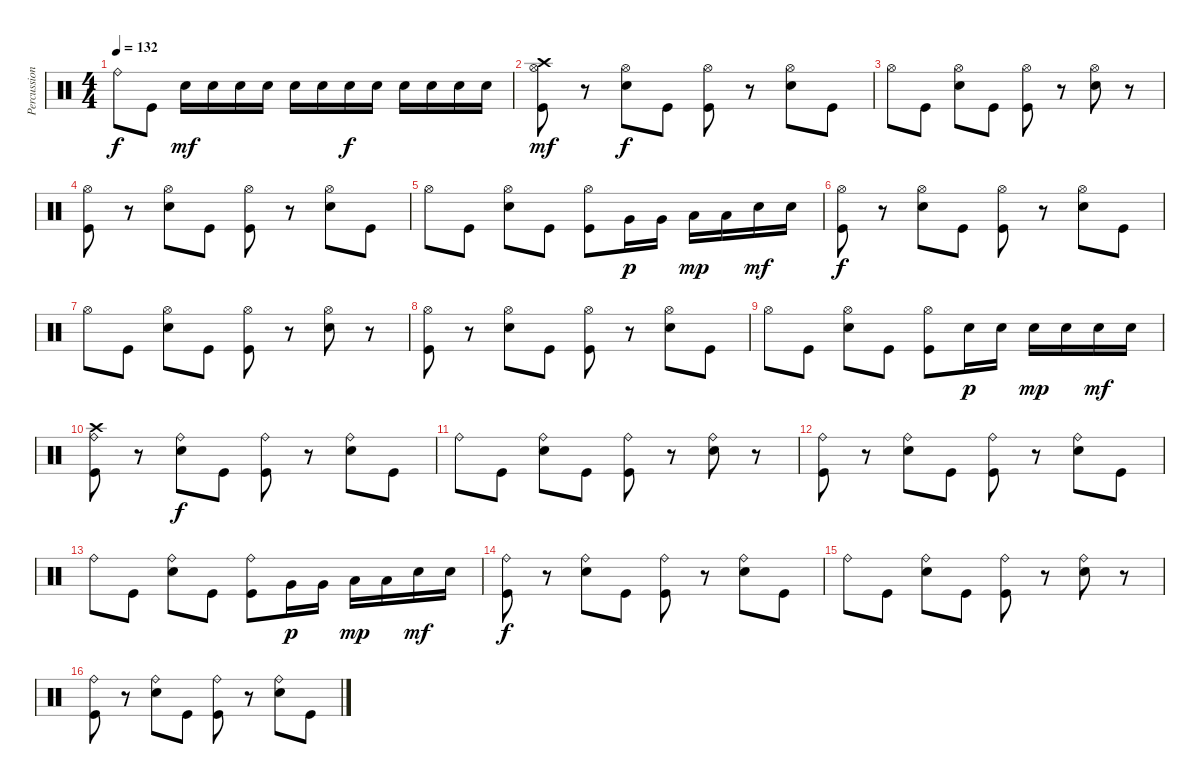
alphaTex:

\track ("Percussion" "Percussion") {instrument percussion}
\staff {score}
\articulation defaults
\ts (4 4)
\tempo 132
\clef neutral
\ks c "Ride (bell)".8{dy f} "Kick (hit)".8 "Snare (hit) 2".16{dy mf} "Snare (hit) 2".16 "Snare (hit) 2".16 "Snare (hit) 2".16 "Snare (hit) 2".16 "Snare (hit) 2".16 "Snare (hit) 2".16{dy f} "Snare (hit) 2".16 "Snare (hit) 2".16 "Snare (hit) 2".16 "Snare (hit) 2".16 "Snare (hit) 2".16
|
("Crash high (hit)" "Hi-Hat (open)" "Kick (hit)").8{dy mf} r.8 ("Hi-Hat (open)" "Snare (hit) 2").8{dy f} "Kick (hit)".8 ("Hi-Hat (open)" "Kick (hit)").8 r.8 ("Hi-Hat (open)" "Snare (hit) 2").8 "Kick (hit)".8 |
"Hi-Hat (open)".8 "Kick (hit)".8 ("Hi-Hat (open)" "Snare (hit) 2").8 "Kick (hit)".8 ("Hi-Hat (open)" "Kick (hit)").8 r.8 ("Hi-Hat (open)" "Snare (hit) 2").8 r.8 |
("Hi-Hat (open)" "Kick (hit)").8 r.8 ("Hi-Hat (open)" "Snare (hit) 2").8 "Kick (hit)".8 ("Hi-Hat (open)" "Kick (hit)").8 r.8 ("Hi-Hat (open)" "Snare (hit) 2").8 "Kick (hit)".8 |
"Hi-Hat (open)".8 "Kick (hit)".8 ("Hi-Hat (open)" "Snare (hit) 2").8 "Kick (hit)".8 ("Hi-Hat (open)" "Kick (hit)").8 "Very Low Tom (hit)".16{dy p} "Very Low Tom (hit)".16 "Low Floor Tom (hit)".16{dy mp} "Low Floor Tom (hit)".16 "Snare (hit) 2".16{dy mf} "Snare (hit) 2".16 |
("Hi-Hat (open)" "Kick (hit)").8{dy f} r.8 ("Hi-Hat (open)" "Snare (hit) 2").8 "Kick (hit)".8 ("Hi-Hat (open)" "Kick (hit)").8 r.8 ("Hi-Hat (open)" "Snare (hit) 2").8 "Kick (hit)".8 |
"Hi-Hat (open)".8 "Kick (hit)".8 ("Hi-Hat (open)" "Snare (hit) 2").8 "Kick (hit)".8 ("Hi-Hat (open)" "Kick (hit)").8 r.8 ("Hi-Hat (open)" "Snare (hit) 2").8 r.8 |
("Hi-Hat (open)" "Kick (hit)").8 r.8 ("Hi-Hat (open)" "Snare (hit) 2").8 "Kick (hit)".8 ("Hi-Hat (open)" "Kick (hit)").8 r.8 ("Hi-Hat (open)" "Snare (hit) 2").8 "Kick (hit)".8 |
"Hi-Hat (open)".8 "Kick (hit)".8 ("Hi-Hat (open)" "Snare (hit) 2").8 "Kick (hit)".8 ("Hi-Hat (open)" "Kick (hit)").8 "Snare (hit) 2".16{dy p} "Snare (hit) 2".16 "Snare (hit) 2".16{dy mp} "Snare (hit) 2".16 "Snare (hit) 2".16{dy mf} "Snare (hit) 2".16 |
("Crash high (hit)" "Ride (bell)" "Kick (hit)").8 r.8 ("Ride (bell)" "Snare (hit) 2").8{dy f} "Kick (hit)".8 ("Ride (bell)" "Kick (hit)").8 r.8 ("Ride (bell)" "Snare (hit) 2").8 "Kick (hit)".8 |
"Ride (bell)".8 "Kick (hit)".8 ("Ride (bell)" "Snare (hit) 2").8 "Kick (hit)".8 ("Ride (bell)" "Kick (hit)").8 r.8 ("Ride (bell)" "Snare (hit) 2").8 r.8 |
("Ride (bell)" "Kick (hit)").8 r.8 ("Ride (bell)" "Snare (hit) 2").8 "Kick (hit)".8 ("Ride (bell)" "Kick (hit)").8 r.8 ("Ride (bell)" "Snare (hit) 2").8 "Kick (hit)".8 |
"Ride (bell)".8 "Kick (hit)".8 ("Ride (bell)" "Snare (hit) 2").8 "Kick (hit)".8 ("Ride (bell)" "Kick (hit)").8 "Very Low Tom (hit)".16{dy p} "Very Low Tom (hit)".16 "Low Floor Tom (hit)".16{dy mp} "Low Floor Tom (hit)".16 "Snare (hit) 2".16{dy mf} "Snare (hit) 2".16 |
("Ride (bell)" "Kick (hit)").8{dy f} r.8 ("Ride (bell)" "Snare (hit) 2").8 "Kick (hit)".8 ("Ride (bell)" "Kick (hit)").8 r.8 ("Ride (bell)" "Snare (hit) 2").8 "Kick (hit)".8 |
"Ride (bell)".8 "Kick (hit)".8 ("Ride (bell)" "Snare (hit) 2").8 "Kick (hit)".8 ("Ride (bell)" "Kick (hit)").8 r.8 ("Ride (bell)" "Snare (hit) 2").8 r.8 |
("Ride (bell)" "Kick (hit)").8 r.8 ("Ride (bell)" "Snare (hit) 2").8 "Kick (hit)".8 ("Ride (bell)" "Kick (hit)").8 r.8 ("Ride (bell)" "Snare (hit) 2").8 "Kick (hit)".8
